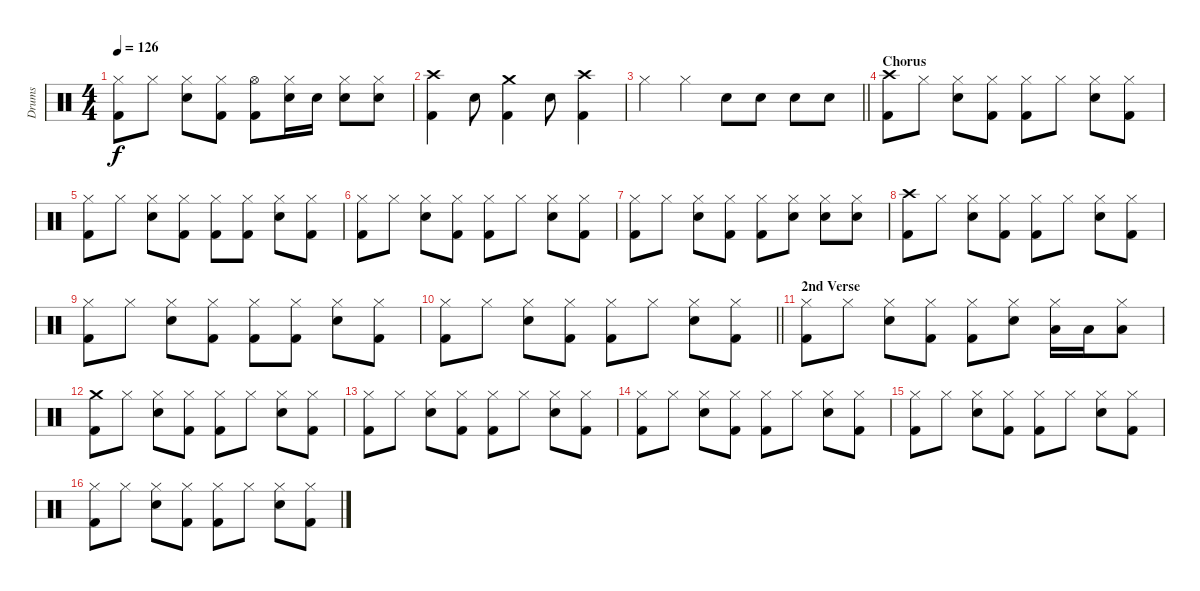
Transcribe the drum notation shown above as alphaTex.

\track ("Drums" "Drums") {instrument percussion}
\staff {score}
\articulation defaults
\ts (4 4)
\tempo 126
\clef neutral
\ks c
("Kick (hit) 2" "Hi-Hat (closed)").8{dy f} "Hi-Hat (closed)".8 ("Snare (hit) 2" "Hi-Hat (closed)").8 ("Kick (hit) 2" "Hi-Hat (closed)").8 ("Kick (hit) 2" "Hi-Hat (open)").8 ("Snare (hit) 2" "Hi-Hat (closed)").16 "Snare (hit) 2".16 ("Snare (hit) 2" "Hi-Hat (closed)").8 ("Snare (hit) 2" "Hi-Hat (closed)").8 |
("Kick (hit) 2" "Crash high (hit)").4 "Snare (hit) 2".8 ("Kick (hit) 2" "Crash medium (hit)").4 "Snare (hit) 2".8 ("Kick (hit) 2" "Crash high (hit)").4 |
\barLineRight lightlight "Hi-Hat (closed)".4 "Hi-Hat (closed)".4 "Snare (hit) 2".8 "Snare (hit) 2".8 "Snare (hit) 2".8 "Snare (hit) 2".8
|
\section ("" "Chorus")
("Kick (hit) 2" "Crash high (hit)").8 "Hi-Hat (closed)".8 ("Snare (hit) 2" "Hi-Hat (closed)").8 ("Kick (hit) 2" "Hi-Hat (closed)").8 ("Kick (hit) 2" "Hi-Hat (closed)").8 "Hi-Hat (closed)".8 ("Snare (hit) 2" "Hi-Hat (closed)").8 ("Kick (hit) 2" "Hi-Hat (closed)").8 |
("Kick (hit) 2" "Hi-Hat (closed)").8 "Hi-Hat (closed)".8 ("Snare (hit) 2" "Hi-Hat (closed)").8 ("Kick (hit) 2" "Hi-Hat (closed)").8 ("Kick (hit) 2" "Hi-Hat (closed)").8 ("Kick (hit) 2" "Hi-Hat (closed)").8 ("Snare (hit) 2" "Hi-Hat (closed)").8 ("Kick (hit) 2" "Hi-Hat (closed)").8 |
("Kick (hit) 2" "Hi-Hat (closed)").8 "Hi-Hat (closed)".8 ("Snare (hit) 2" "Hi-Hat (closed)").8 ("Kick (hit) 2" "Hi-Hat (closed)").8 ("Kick (hit) 2" "Hi-Hat (closed)").8 "Hi-Hat (closed)".8 ("Snare (hit) 2" "Hi-Hat (closed)").8 ("Kick (hit) 2" "Hi-Hat (closed)").8 |
("Kick (hit) 2" "Hi-Hat (closed)").8 "Hi-Hat (closed)".8 ("Snare (hit) 2" "Hi-Hat (closed)").8 ("Kick (hit) 2" "Hi-Hat (closed)").8 ("Kick (hit) 2" "Hi-Hat (closed)").8 ("Snare (hit) 2" "Hi-Hat (closed)").8 ("Snare (hit) 2" "Hi-Hat (closed)").8 ("Snare (hit) 2" "Hi-Hat (closed)").8 |
("Kick (hit) 2" "Crash high (hit)").8 "Hi-Hat (closed)".8 ("Snare (hit) 2" "Hi-Hat (closed)").8 ("Kick (hit) 2" "Hi-Hat (closed)").8 ("Kick (hit) 2" "Hi-Hat (closed)").8 "Hi-Hat (closed)".8 ("Snare (hit) 2" "Hi-Hat (closed)").8 ("Kick (hit) 2" "Hi-Hat (closed)").8 |
("Kick (hit) 2" "Hi-Hat (closed)").8 "Hi-Hat (closed)".8 ("Snare (hit) 2" "Hi-Hat (closed)").8 ("Kick (hit) 2" "Hi-Hat (closed)").8 ("Kick (hit) 2" "Hi-Hat (closed)").8 ("Kick (hit) 2" "Hi-Hat (closed)").8 ("Snare (hit) 2" "Hi-Hat (closed)").8 ("Kick (hit) 2" "Hi-Hat (closed)").8 |
\barLineRight lightlight
("Kick (hit) 2" "Hi-Hat (closed)").8 "Hi-Hat (closed)".8 ("Snare (hit) 2" "Hi-Hat (closed)").8 ("Kick (hit) 2" "Hi-Hat (closed)").8 ("Kick (hit) 2" "Hi-Hat (closed)").8 "Hi-Hat (closed)".8 ("Snare (hit) 2" "Hi-Hat (closed)").8 ("Kick (hit) 2" "Hi-Hat (closed)").8 |
\section ("" "2nd Verse")
("Kick (hit) 2" "Hi-Hat (closed)").8 "Hi-Hat (closed)".8 ("Snare (hit) 2" "Hi-Hat (closed)").8 ("Kick (hit) 2" "Hi-Hat (closed)").8 ("Kick (hit) 2" "Hi-Hat (closed)").8 ("Snare (hit) 2" "Hi-Hat (closed)").8 ("Hi-Hat (closed)" "Low Tom (hit)").16 "Low Tom (hit)".16 ("Hi-Hat (closed)" "Low Tom (hit)").8 |
("Kick (hit) 2" "Crash medium (hit)").8 "Hi-Hat (closed)".8 ("Snare (hit) 2" "Hi-Hat (closed)").8 ("Kick (hit) 2" "Hi-Hat (closed)").8 ("Kick (hit) 2" "Hi-Hat (closed)").8 "Hi-Hat (closed)".8 ("Snare (hit) 2" "Hi-Hat (closed)").8 ("Kick (hit) 2" "Hi-Hat (closed)").8 |
("Kick (hit) 2" "Hi-Hat (closed)").8 "Hi-Hat (closed)".8 ("Snare (hit) 2" "Hi-Hat (closed)").8 ("Kick (hit) 2" "Hi-Hat (closed)").8 ("Kick (hit) 2" "Hi-Hat (closed)").8 "Hi-Hat (closed)".8 ("Snare (hit) 2" "Hi-Hat (closed)").8 ("Kick (hit) 2" "Hi-Hat (closed)").8 |
("Kick (hit) 2" "Hi-Hat (closed)").8 "Hi-Hat (closed)".8 ("Snare (hit) 2" "Hi-Hat (closed)").8 ("Kick (hit) 2" "Hi-Hat (closed)").8 ("Kick (hit) 2" "Hi-Hat (closed)").8 "Hi-Hat (closed)".8 ("Snare (hit) 2" "Hi-Hat (closed)").8 ("Kick (hit) 2" "Hi-Hat (closed)").8 |
("Kick (hit) 2" "Hi-Hat (closed)").8 "Hi-Hat (closed)".8 ("Snare (hit) 2" "Hi-Hat (closed)").8 ("Kick (hit) 2" "Hi-Hat (closed)").8 ("Kick (hit) 2" "Hi-Hat (closed)").8 "Hi-Hat (closed)".8 ("Snare (hit) 2" "Hi-Hat (closed)").8 ("Kick (hit) 2" "Hi-Hat (closed)").8 |
("Kick (hit) 2" "Hi-Hat (closed)").8 "Hi-Hat (closed)".8 ("Snare (hit) 2" "Hi-Hat (closed)").8 ("Kick (hit) 2" "Hi-Hat (closed)").8 ("Kick (hit) 2" "Hi-Hat (closed)").8 "Hi-Hat (closed)".8 ("Snare (hit) 2" "Hi-Hat (closed)").8 ("Kick (hit) 2" "Hi-Hat (closed)").8
